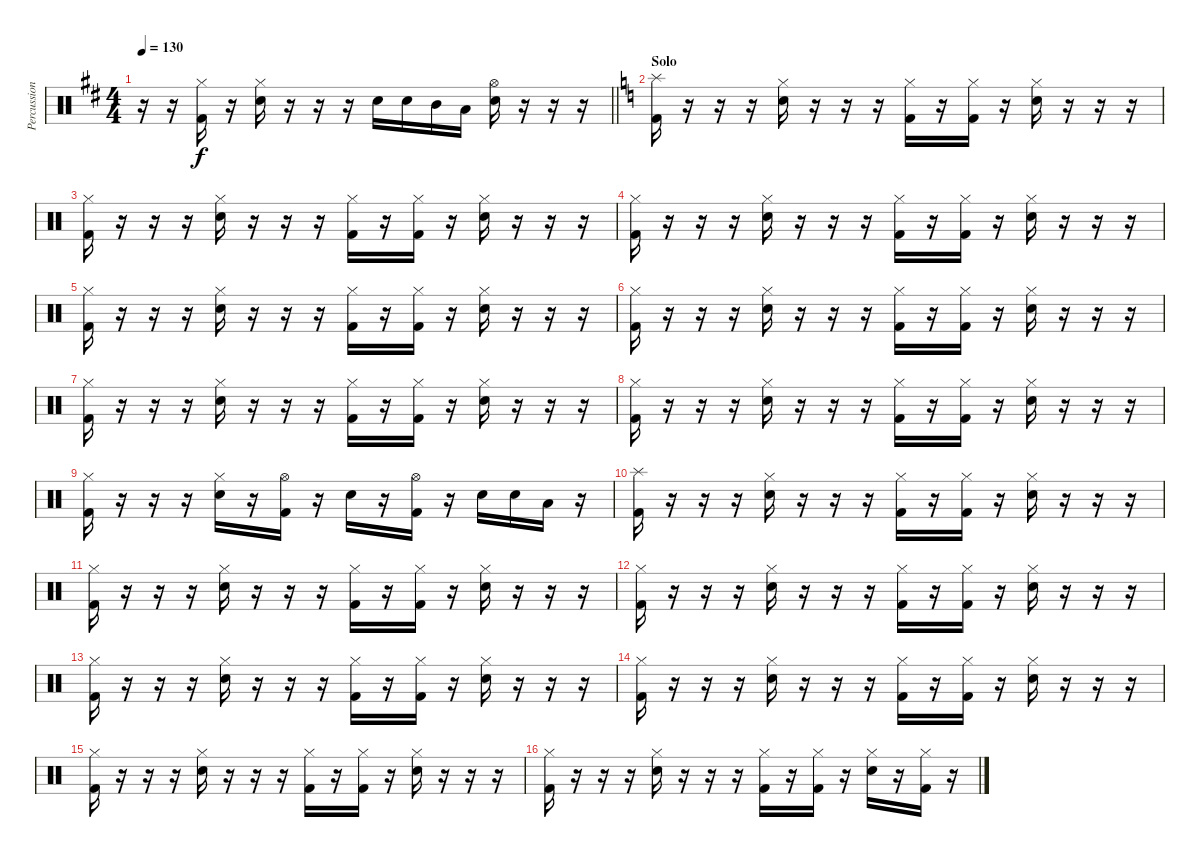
\track ("Percussioni" "Percussion") {instrument percussion}
\staff {score}
\articulation defaults
\ts (4 4)
\tempo 130
\clef neutral
\barLineRight lightlight
\ks d
r.16{dy f} r.16 ("Kick (hit) 2" "Hi-Hat (closed)").16 r.16 ("Snare (hit) 2" "Hi-Hat (closed)").16 r.16 r.16 r.16 "Snare (hit) 2".16 "Snare (hit) 2".16 "Mid Tom (hit)".16 "Low Tom (hit)".16 ("Snare (hit) 2" "Hi-Hat (open)").16 r.16 r.16 r.16 |
\section ("" "Solo")
\ks c
("Kick (hit) 2" "Splash (hit)").16 r.16 r.16 r.16 ("Snare (hit) 2" "Hi-Hat (closed)").16 r.16 r.16 r.16 ("Kick (hit) 2" "Hi-Hat (closed)").16 r.16 ("Kick (hit) 2" "Hi-Hat (closed)").16 r.16 ("Snare (hit) 2" "Hi-Hat (closed)").16 r.16 r.16 r.16 |
("Kick (hit) 2" "Hi-Hat (closed)").16 r.16 r.16 r.16 ("Snare (hit) 2" "Hi-Hat (closed)").16 r.16 r.16 r.16 ("Kick (hit) 2" "Hi-Hat (closed)").16 r.16 ("Kick (hit) 2" "Hi-Hat (closed)").16 r.16 ("Snare (hit) 2" "Hi-Hat (closed)").16 r.16 r.16 r.16 |
("Kick (hit) 2" "Hi-Hat (closed)").16 r.16 r.16 r.16 ("Snare (hit) 2" "Hi-Hat (closed)").16 r.16 r.16 r.16 ("Kick (hit) 2" "Hi-Hat (closed)").16 r.16 ("Kick (hit) 2" "Hi-Hat (closed)").16 r.16 ("Snare (hit) 2" "Hi-Hat (closed)").16 r.16 r.16 r.16 |
("Kick (hit) 2" "Hi-Hat (closed)").16 r.16 r.16 r.16 ("Snare (hit) 2" "Hi-Hat (closed)").16 r.16 r.16 r.16 ("Kick (hit) 2" "Hi-Hat (closed)").16 r.16 ("Kick (hit) 2" "Hi-Hat (closed)").16 r.16 ("Snare (hit) 2" "Hi-Hat (closed)").16 r.16 r.16 r.16 |
("Kick (hit) 2" "Hi-Hat (closed)").16 r.16 r.16 r.16 ("Snare (hit) 2" "Hi-Hat (closed)").16 r.16 r.16 r.16 ("Kick (hit) 2" "Hi-Hat (closed)").16 r.16 ("Kick (hit) 2" "Hi-Hat (closed)").16 r.16 ("Snare (hit) 2" "Hi-Hat (closed)").16 r.16 r.16 r.16 |
("Kick (hit) 2" "Hi-Hat (closed)").16 r.16 r.16 r.16 ("Snare (hit) 2" "Hi-Hat (closed)").16 r.16 r.16 r.16 ("Kick (hit) 2" "Hi-Hat (closed)").16 r.16 ("Kick (hit) 2" "Hi-Hat (closed)").16 r.16 ("Snare (hit) 2" "Hi-Hat (closed)").16 r.16 r.16 r.16 |
("Kick (hit) 2" "Hi-Hat (closed)").16 r.16 r.16 r.16 ("Snare (hit) 2" "Hi-Hat (closed)").16 r.16 r.16 r.16 ("Kick (hit) 2" "Hi-Hat (closed)").16 r.16 ("Kick (hit) 2" "Hi-Hat (closed)").16 r.16 ("Snare (hit) 2" "Hi-Hat (closed)").16 r.16 r.16 r.16 |
("Kick (hit) 2" "Hi-Hat (closed)").16 r.16 r.16 r.16 ("Snare (hit) 2" "Hi-Hat (closed)").16 r.16 ("Kick (hit) 2" "Hi-Hat (open)").16 r.16 "Snare (hit) 2".16 r.16 ("Kick (hit) 2" "Hi-Hat (open)").16 r.16 "Snare (hit) 2".16 "Snare (hit) 2".16 "Low Tom (hit)".16 r.16 |
("Kick (hit) 2" "Splash (hit)").16 r.16 r.16 r.16 ("Snare (hit) 2" "Hi-Hat (closed)").16 r.16 r.16 r.16 ("Kick (hit) 2" "Hi-Hat (closed)").16 r.16 ("Kick (hit) 2" "Hi-Hat (closed)").16 r.16 ("Snare (hit) 2" "Hi-Hat (closed)").16 r.16 r.16 r.16 |
("Kick (hit) 2" "Hi-Hat (closed)").16 r.16 r.16 r.16 ("Snare (hit) 2" "Hi-Hat (closed)").16 r.16 r.16 r.16 ("Kick (hit) 2" "Hi-Hat (closed)").16 r.16 ("Kick (hit) 2" "Hi-Hat (closed)").16 r.16 ("Snare (hit) 2" "Hi-Hat (closed)").16 r.16 r.16 r.16 |
("Kick (hit) 2" "Hi-Hat (closed)").16 r.16 r.16 r.16 ("Snare (hit) 2" "Hi-Hat (closed)").16 r.16 r.16 r.16 ("Kick (hit) 2" "Hi-Hat (closed)").16 r.16 ("Kick (hit) 2" "Hi-Hat (closed)").16 r.16 ("Snare (hit) 2" "Hi-Hat (closed)").16 r.16 r.16 r.16 |
("Kick (hit) 2" "Hi-Hat (closed)").16 r.16 r.16 r.16 ("Snare (hit) 2" "Hi-Hat (closed)").16 r.16 r.16 r.16 ("Kick (hit) 2" "Hi-Hat (closed)").16 r.16 ("Kick (hit) 2" "Hi-Hat (closed)").16 r.16 ("Snare (hit) 2" "Hi-Hat (closed)").16 r.16 r.16 r.16 |
("Kick (hit) 2" "Hi-Hat (closed)").16 r.16 r.16 r.16 ("Snare (hit) 2" "Hi-Hat (closed)").16 r.16 r.16 r.16 ("Kick (hit) 2" "Hi-Hat (closed)").16 r.16 ("Kick (hit) 2" "Hi-Hat (closed)").16 r.16 ("Snare (hit) 2" "Hi-Hat (closed)").16 r.16 r.16 r.16 |
("Kick (hit) 2" "Hi-Hat (closed)").16 r.16 r.16 r.16 ("Snare (hit) 2" "Hi-Hat (closed)").16 r.16 r.16 r.16 ("Kick (hit) 2" "Hi-Hat (closed)").16 r.16 ("Kick (hit) 2" "Hi-Hat (closed)").16 r.16 ("Snare (hit) 2" "Hi-Hat (closed)").16 r.16 r.16 r.16 |
("Kick (hit) 2" "Hi-Hat (closed)").16 r.16 r.16 r.16 ("Snare (hit) 2" "Hi-Hat (closed)").16 r.16 r.16 r.16 ("Kick (hit) 2" "Hi-Hat (closed)").16 r.16 ("Kick (hit) 2" "Hi-Hat (closed)").16 r.16 ("Snare (hit) 2" "Hi-Hat (closed)").16 r.16 ("Kick (hit) 2" "Hi-Hat (closed)").16 r.16
